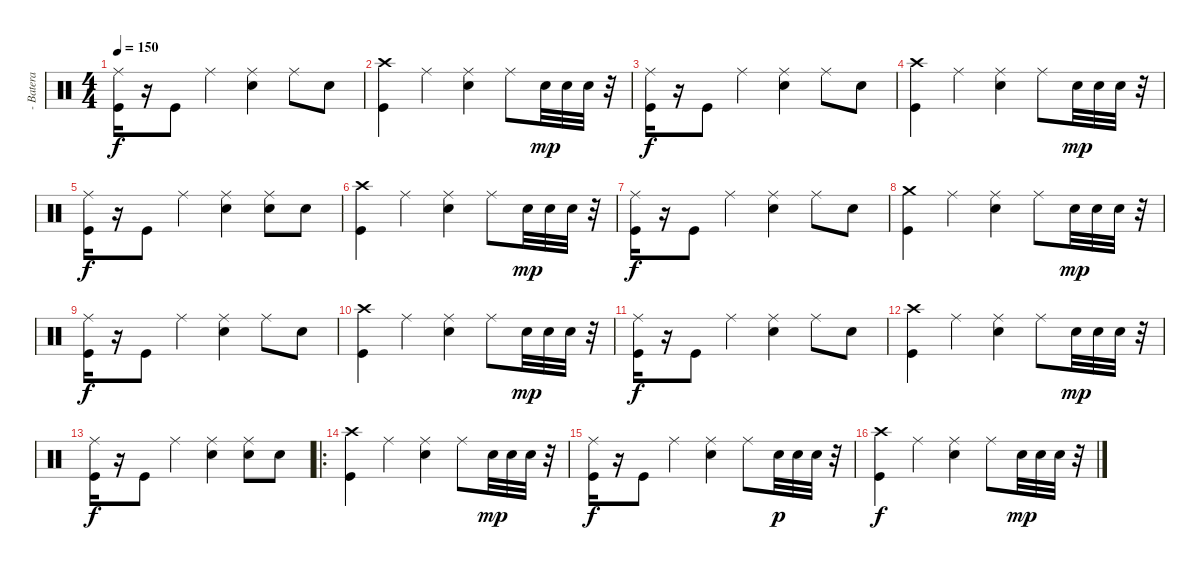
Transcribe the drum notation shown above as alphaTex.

\track ("- Batera" "- Batera") {instrument percussion}
\staff {score}
\articulation defaults
\ts (4 4)
\tempo 150
\clef neutral
\ks c
("Ride (middle)" "Kick (hit)").16{dy f} r.16 "Kick (hit)".8 "Ride (middle)".4 ("Ride (middle)" "Snare (hit) 2").4 "Ride (middle)".8 "Snare (hit) 2".8 |
("Crash high (hit)" "Kick (hit)").4 "Ride (middle)".4 ("Ride (middle)" "Snare (hit) 2").4 "Ride (middle)".8 "Snare (hit) 2".32{dy mp} "Snare (hit) 2".32 "Snare (hit) 2".32 r.32 |
("Ride (middle)" "Kick (hit)").16{dy f} r.16 "Kick (hit)".8 "Ride (middle)".4 ("Ride (middle)" "Snare (hit) 2").4 "Ride (middle)".8 "Snare (hit) 2".8 |
("Crash high (hit)" "Kick (hit)").4 "Ride (middle)".4 ("Ride (middle)" "Snare (hit) 2").4 "Ride (middle)".8 "Snare (hit) 2".32{dy mp} "Snare (hit) 2".32 "Snare (hit) 2".32 r.32 |
("Ride (middle)" "Kick (hit)").16{dy f} r.16 "Kick (hit)".8 "Ride (middle)".4 ("Ride (middle)" "Snare (hit) 2").4 ("Ride (middle)" "Snare (hit) 2").8 "Snare (hit) 2".8 |
("Crash high (hit)" "Kick (hit)").4 "Ride (middle)".4 ("Ride (middle)" "Snare (hit) 2").4 "Ride (middle)".8 "Snare (hit) 2".32{dy mp} "Snare (hit) 2".32 "Snare (hit) 2".32 r.32 |
("Ride (middle)" "Kick (hit)").16{dy f} r.16 "Kick (hit)".8 "Ride (middle)".4 ("Ride (middle)" "Snare (hit) 2").4 "Ride (middle)".8 "Snare (hit) 2".8 |
("Crash medium (hit)" "Kick (hit)").4 "Ride (middle)".4 ("Ride (middle)" "Snare (hit) 2").4 "Ride (middle)".8 "Snare (hit) 2".32{dy mp} "Snare (hit) 2".32 "Snare (hit) 2".32 r.32 |
("Ride (middle)" "Kick (hit)").16{dy f} r.16 "Kick (hit)".8 "Ride (middle)".4 ("Ride (middle)" "Snare (hit) 2").4 "Ride (middle)".8 "Snare (hit) 2".8 |
("Crash high (hit)" "Kick (hit)").4 "Ride (middle)".4 ("Ride (middle)" "Snare (hit) 2").4 "Ride (middle)".8 "Snare (hit) 2".32{dy mp} "Snare (hit) 2".32 "Snare (hit) 2".32 r.32 |
("Ride (middle)" "Kick (hit)").16{dy f} r.16 "Kick (hit)".8 "Ride (middle)".4 ("Ride (middle)" "Snare (hit) 2").4 "Ride (middle)".8 "Snare (hit) 2".8 |
("Crash high (hit)" "Kick (hit)").4 "Ride (middle)".4 ("Ride (middle)" "Snare (hit) 2").4 "Ride (middle)".8 "Snare (hit) 2".32{dy mp} "Snare (hit) 2".32 "Snare (hit) 2".32 r.32 |
("Ride (middle)" "Kick (hit)").16{dy f} r.16 "Kick (hit)".8 "Ride (middle)".4 ("Ride (middle)" "Snare (hit) 2").4 ("Ride (middle)" "Snare (hit) 2").8 "Snare (hit) 2".8 |
\ro
("Crash high (hit)" "Kick (hit)").4 "Ride (middle)".4 ("Ride (middle)" "Snare (hit) 2").4 "Ride (middle)".8 "Snare (hit) 2".32{dy mp} "Snare (hit) 2".32 "Snare (hit) 2".32 r.32 |
("Ride (middle)" "Kick (hit)").16{dy f} r.16 "Kick (hit)".8 "Ride (middle)".4 ("Ride (middle)" "Snare (hit) 2").4 "Ride (middle)".8 "Snare (hit) 2".32{dy p} "Snare (hit) 2".32 "Snare (hit) 2".32 r.32 |
("Crash high (hit)" "Kick (hit)").4{dy f} "Ride (middle)".4 ("Ride (middle)" "Snare (hit) 2").4 "Ride (middle)".8 "Snare (hit) 2".32{dy mp} "Snare (hit) 2".32 "Snare (hit) 2".32 r.32
